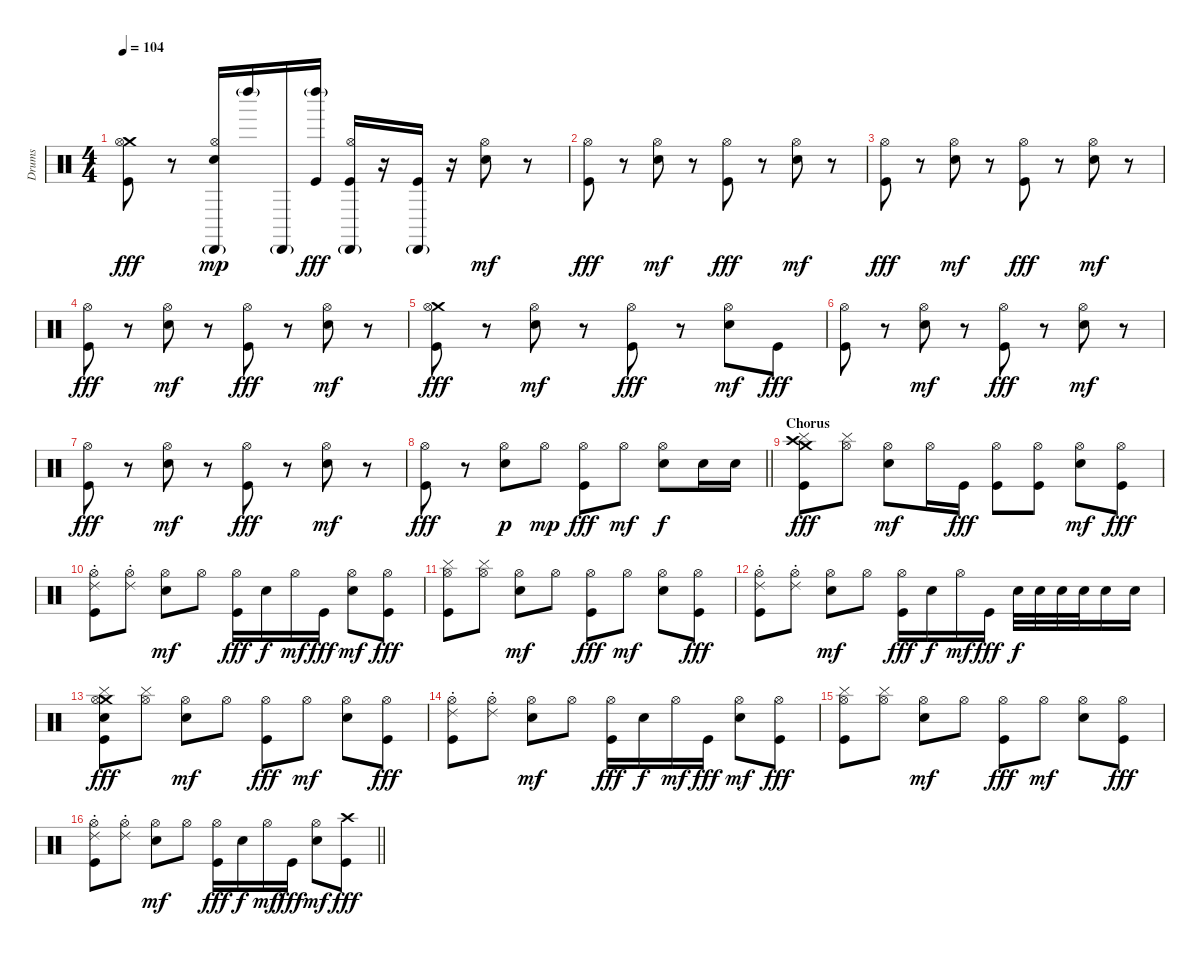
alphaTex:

\track ("Drums" "Drums") {instrument percussion}
\staff {score}
\articulation defaults
\ts (4 4)
\tempo 104
\clef neutral
\ks c
("Crash medium (hit)" "Hi-Hat (open)" "Kick (hit)").8{dy fff} r.8 ("Hi-Hat (open)" "Cabasa (hit)"{g} "Electric Snare (hit)").16{dy mp} "Left Maraca (hit)"{g}.16 "Cabasa (hit)"{g}.16 ("Left Maraca (hit)"{g} "Kick (hit)").16{dy fff} ("Hi-Hat (open)" "Cabasa (hit)"{g} "Kick (hit)").16 r.16 ("Cabasa (hit)"{g} "Kick (hit)").16 r.16 ("Hi-Hat (open)" "Electric Snare (hit)").8{dy mf} r.8 |
("Hi-Hat (open)" "Kick (hit)").8{dy fff} r.8 ("Hi-Hat (open)" "Electric Snare (hit)").8{dy mf} r.8 ("Hi-Hat (open)" "Kick (hit)").8{dy fff} r.8 ("Hi-Hat (open)" "Electric Snare (hit)").8{dy mf} r.8 |
("Hi-Hat (open)" "Kick (hit)").8{dy fff} r.8 ("Hi-Hat (open)" "Electric Snare (hit)").8{dy mf} r.8 ("Hi-Hat (open)" "Kick (hit)").8{dy fff} r.8 ("Hi-Hat (open)" "Electric Snare (hit)").8{dy mf} r.8 |
("Hi-Hat (open)" "Kick (hit)").8{dy fff} r.8 ("Hi-Hat (open)" "Electric Snare (hit)").8{dy mf} r.8 ("Hi-Hat (open)" "Kick (hit)").8{dy fff} r.8 ("Hi-Hat (open)" "Electric Snare (hit)").8{dy mf} r.8 |
("Crash medium (hit)" "Hi-Hat (open)" "Kick (hit)").8{dy fff} r.8 ("Hi-Hat (open)" "Electric Snare (hit)").8{dy mf} r.8 ("Hi-Hat (open)" "Kick (hit)").8{dy fff} r.8 ("Hi-Hat (open)" "Electric Snare (hit)").8{dy mf} "Kick (hit)".8{dy fff} |
("Hi-Hat (open)" "Kick (hit)").8 r.8 ("Hi-Hat (open)" "Electric Snare (hit)").8{dy mf} r.8 ("Hi-Hat (open)" "Kick (hit)").8{dy fff} r.8 ("Hi-Hat (open)" "Electric Snare (hit)").8{dy mf} r.8 |
("Hi-Hat (open)" "Kick (hit)").8{dy fff} r.8 ("Hi-Hat (open)" "Electric Snare (hit)").8{dy mf} r.8 ("Hi-Hat (open)" "Kick (hit)").8{dy fff} r.8 ("Hi-Hat (open)" "Electric Snare (hit)").8{dy mf} r.8 |
\barLineRight lightlight
("Hi-Hat (open)" "Kick (hit)").8{dy fff} r.8 ("Hi-Hat (open)" "Electric Snare (hit)").8{dy p} "Hi-Hat (open)".8{dy mp} ("Hi-Hat (open)" "Kick (hit)").8{dy fff} "Hi-Hat (open)".8{dy mf} ("Hi-Hat (open)" "Electric Snare (hit)").8{dy f} "Electric Snare (hit)".16 "Electric Snare (hit)".16 |
\section ("" "Chorus")
("Crash high (hit)" "Crash medium (hit)" "Cymbal (hit)" "Kick (hit)").8{dy fff} ("Hi-Hat (open)" "Cymbal (hit)").8 ("Hi-Hat (open)" "Electric Snare (hit)").8{dy mf} "Hi-Hat (open)".16 "Kick (hit)".16{dy fff} ("Hi-Hat (open)" "Kick (hit)").8 ("Hi-Hat (open)" "Kick (hit)").8 ("Hi-Hat (open)" "Electric Snare (hit)").8{dy mf} ("Hi-Hat (open)" "Kick (hit)").8{dy fff} |
("Hi-Hat (open)" "Ride (choke) 2" "Kick (hit)").8 ("Hi-Hat (open)" "Ride (choke) 2").8 ("Hi-Hat (open)" "Electric Snare (hit)").8{dy mf} "Hi-Hat (open)".8 ("Hi-Hat (open)" "Kick (hit)").16{dy fff} "Electric Snare (hit)".16{dy f} "Hi-Hat (open)".16{dy mf} "Kick (hit)".16{dy fff} ("Hi-Hat (open)" "Electric Snare (hit)").8{dy mf} ("Hi-Hat (open)" "Kick (hit)").8{dy fff} |
("Hi-Hat (open)" "Cymbal (hit)" "Kick (hit)").8 ("Hi-Hat (open)" "Cymbal (hit)").8 ("Hi-Hat (open)" "Electric Snare (hit)").8{dy mf} "Hi-Hat (open)".8 ("Hi-Hat (open)" "Kick (hit)").8{dy fff} "Hi-Hat (open)".8{dy mf} ("Hi-Hat (open)" "Electric Snare (hit)").8 ("Hi-Hat (open)" "Kick (hit)").8{dy fff} |
("Hi-Hat (open)" "Ride (choke) 2" "Kick (hit)").8 ("Hi-Hat (open)" "Ride (choke) 2").8 ("Hi-Hat (open)" "Electric Snare (hit)").8{dy mf} "Hi-Hat (open)".8 ("Hi-Hat (open)" "Kick (hit)").16{dy fff} "Electric Snare (hit)".16{dy f} "Hi-Hat (open)".16{dy mf} "Kick (hit)".16{dy fff} "Electric Snare (hit)".32{dy f} "Electric Snare (hit)".32 "Electric Snare (hit)".32 "Electric Snare (hit)".32 "Electric Snare (hit)".16 "Electric Snare (hit)".16 |
("Crash medium (hit)" "Hi-Hat (open)" "Cymbal (hit)" "Electric Snare (hit)" "Kick (hit)").8{dy fff} ("Hi-Hat (open)" "Cymbal (hit)").8 ("Hi-Hat (open)" "Electric Snare (hit)").8{dy mf} "Hi-Hat (open)".8 ("Hi-Hat (open)" "Kick (hit)").8{dy fff} "Hi-Hat (open)".8{dy mf} ("Hi-Hat (open)" "Electric Snare (hit)").8 ("Hi-Hat (open)" "Kick (hit)").8{dy fff} |
("Hi-Hat (open)" "Ride (choke) 2" "Kick (hit)").8 ("Hi-Hat (open)" "Ride (choke) 2").8 ("Hi-Hat (open)" "Electric Snare (hit)").8{dy mf} "Hi-Hat (open)".8 ("Hi-Hat (open)" "Kick (hit)").16{dy fff} "Electric Snare (hit)".16{dy f} "Hi-Hat (open)".16{dy mf} "Kick (hit)".16{dy fff} ("Hi-Hat (open)" "Electric Snare (hit)").8{dy mf} ("Hi-Hat (open)" "Kick (hit)").8{dy fff} |
("Hi-Hat (open)" "Cymbal (hit)" "Kick (hit)").8 ("Hi-Hat (open)" "Cymbal (hit)").8 ("Hi-Hat (open)" "Electric Snare (hit)").8{dy mf} "Hi-Hat (open)".8 ("Hi-Hat (open)" "Kick (hit)").8{dy fff} "Hi-Hat (open)".8{dy mf} ("Hi-Hat (open)" "Electric Snare (hit)").8 ("Hi-Hat (open)" "Kick (hit)").8{dy fff} |
\barLineRight lightlight
("Hi-Hat (open)" "Ride (choke) 2" "Kick (hit)").8 ("Hi-Hat (open)" "Ride (choke) 2").8 ("Hi-Hat (open)" "Electric Snare (hit)").8{dy mf} "Hi-Hat (open)".8 ("Hi-Hat (open)" "Kick (hit)").16{dy fff} "Electric Snare (hit)".16{dy f} "Hi-Hat (open)".16{dy mf} "Kick (hit)".16{dy fff} ("Hi-Hat (open)" "Electric Snare (hit)").8{dy mf} ("Crash high (hit)" "Kick (hit)").8{dy fff}
